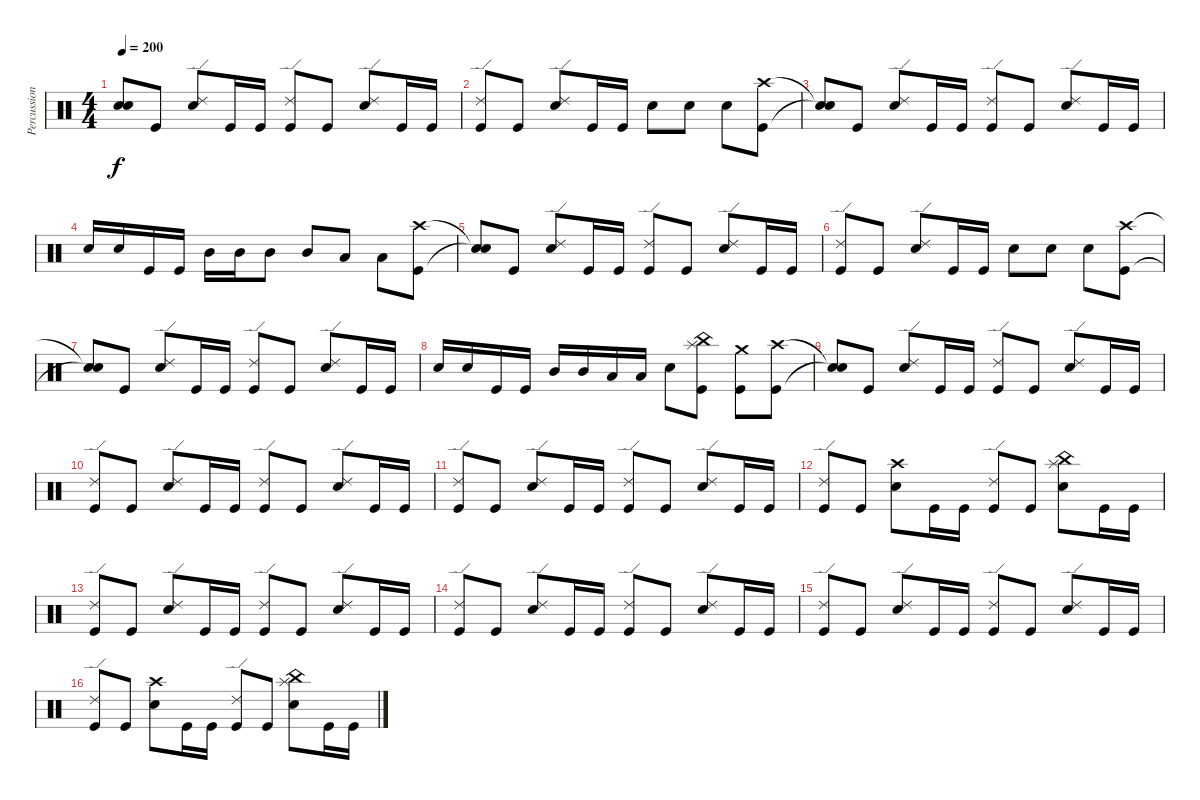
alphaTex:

\track ("Percussioni" "Percussion") {instrument percussion}
\staff {score}
\articulation defaults
\ts (4 4)
\tempo 200
\clef neutral
\ks c
("Snare (hit)"{t} "Snare (hit)"{t}).8{dy f} "Kick (hit)".8 ("Ride (edge) 2" "Electric Snare (hit)").8 "Kick (hit)".16 "Kick (hit)".16 ("Ride (edge) 2" "Kick (hit)").8 "Kick (hit)".8 ("Ride (edge) 2" "Electric Snare (hit)").8 "Kick (hit)".16 "Kick (hit)".16 |
("Ride (edge) 2" "Kick (hit)").8 "Kick (hit)".8 ("Ride (edge) 2" "Electric Snare (hit)").8 "Kick (hit)".16 "Kick (hit)".16 "Electric Snare (hit)".8 "Electric Snare (hit)".8 "Electric Snare (hit)".8 ("Crash high (hit)" "Kick (hit)").8 |
("Snare (hit)"{t} "Snare (hit)"{t}).8 "Kick (hit)".8 ("Ride (edge) 2" "Electric Snare (hit)").8 "Kick (hit)".16 "Kick (hit)".16 ("Ride (edge) 2" "Kick (hit)").8 "Kick (hit)".8 ("Ride (edge) 2" "Electric Snare (hit)").8 "Kick (hit)".16 "Kick (hit)".16 |
"Electric Snare (hit)".16 "Electric Snare (hit)".16 "Kick (hit)".16 "Kick (hit)".16 "Mid Tom (hit)".16 "Mid Tom (hit)".16 "Mid Tom (hit)".8 "Mid Tom (hit)".8 "Low Tom (hit)".8 "Low Tom (hit)".8 ("Crash high (hit)" "Kick (hit)").8 |
("Snare (hit)"{t} "Snare (hit)"{t}).8 "Kick (hit)".8 ("Ride (edge) 2" "Electric Snare (hit)").8 "Kick (hit)".16 "Kick (hit)".16 ("Ride (edge) 2" "Kick (hit)").8 "Kick (hit)".8 ("Ride (edge) 2" "Electric Snare (hit)").8 "Kick (hit)".16 "Kick (hit)".16 |
("Ride (edge) 2" "Kick (hit)").8 "Kick (hit)".8 ("Ride (edge) 2" "Electric Snare (hit)").8 "Kick (hit)".16 "Kick (hit)".16 "Electric Snare (hit)".8 "Electric Snare (hit)".8 "Electric Snare (hit)".8 ("Crash high (hit)" "Kick (hit)").8 |
("Snare (hit)"{t} "Snare (hit)"{t}).8 "Kick (hit)".8 ("Ride (edge) 2" "Electric Snare (hit)").8 "Kick (hit)".16 "Kick (hit)".16 ("Ride (edge) 2" "Kick (hit)").8 "Kick (hit)".8 ("Ride (edge) 2" "Electric Snare (hit)").8 "Kick (hit)".16 "Kick (hit)".16 |
"Electric Snare (hit)".16 "Electric Snare (hit)".16 "Kick (hit)".16 "Kick (hit)".16 "Mid Tom (hit)".16 "Mid Tom (hit)".16 "Low Tom (hit)".16 "Low Tom (hit)".16 "Electric Snare (hit)".8 ("Splash (hit)" "China (hit)" "Kick (hit)").8 ("Crash medium (hit)" "Kick (hit)").8 ("Crash high (hit)" "Kick (hit)").8 |
("Snare (hit)"{t} "Snare (hit)"{t}).8 "Kick (hit)".8 ("Ride (edge) 2" "Electric Snare (hit)").8 "Kick (hit)".16 "Kick (hit)".16 ("Ride (edge) 2" "Kick (hit)").8 "Kick (hit)".8 ("Ride (edge) 2" "Electric Snare (hit)").8 "Kick (hit)".16 "Kick (hit)".16 |
("Ride (edge) 2" "Kick (hit)").8 "Kick (hit)".8 ("Ride (edge) 2" "Electric Snare (hit)").8 "Kick (hit)".16 "Kick (hit)".16 ("Ride (edge) 2" "Kick (hit)").8 "Kick (hit)".8 ("Ride (edge) 2" "Electric Snare (hit)").8 "Kick (hit)".16 "Kick (hit)".16 |
("Ride (edge) 2" "Kick (hit)").8 "Kick (hit)".8 ("Ride (edge) 2" "Electric Snare (hit)").8 "Kick (hit)".16 "Kick (hit)".16 ("Ride (edge) 2" "Kick (hit)").8 "Kick (hit)".8 ("Ride (edge) 2" "Electric Snare (hit)").8 "Kick (hit)".16 "Kick (hit)".16 |
("Ride (edge) 2" "Kick (hit)").8 "Kick (hit)".8 ("Crash high (hit)" "Electric Snare (hit)").8 "Kick (hit)".16 "Kick (hit)".16 ("Ride (edge) 2" "Kick (hit)").8 "Kick (hit)".8 ("Splash (hit)" "China (hit)" "Electric Snare (hit)").8 "Kick (hit)".16 "Kick (hit)".16 |
("Ride (edge) 2" "Kick (hit)").8 "Kick (hit)".8 ("Ride (edge) 2" "Electric Snare (hit)").8 "Kick (hit)".16 "Kick (hit)".16 ("Ride (edge) 2" "Kick (hit)").8 "Kick (hit)".8 ("Ride (edge) 2" "Electric Snare (hit)").8 "Kick (hit)".16 "Kick (hit)".16 |
("Ride (edge) 2" "Kick (hit)").8 "Kick (hit)".8 ("Ride (edge) 2" "Electric Snare (hit)").8 "Kick (hit)".16 "Kick (hit)".16 ("Ride (edge) 2" "Kick (hit)").8 "Kick (hit)".8 ("Ride (edge) 2" "Electric Snare (hit)").8 "Kick (hit)".16 "Kick (hit)".16 |
("Ride (edge) 2" "Kick (hit)").8 "Kick (hit)".8 ("Ride (edge) 2" "Electric Snare (hit)").8 "Kick (hit)".16 "Kick (hit)".16 ("Ride (edge) 2" "Kick (hit)").8 "Kick (hit)".8 ("Ride (edge) 2" "Electric Snare (hit)").8 "Kick (hit)".16 "Kick (hit)".16 |
("Ride (edge) 2" "Kick (hit)").8 "Kick (hit)".8 ("Crash high (hit)" "Electric Snare (hit)").8 "Kick (hit)".16 "Kick (hit)".16 ("Ride (edge) 2" "Kick (hit)").8 "Kick (hit)".8 ("Splash (hit)" "China (hit)" "Electric Snare (hit)").8 "Kick (hit)".16 "Kick (hit)".16
